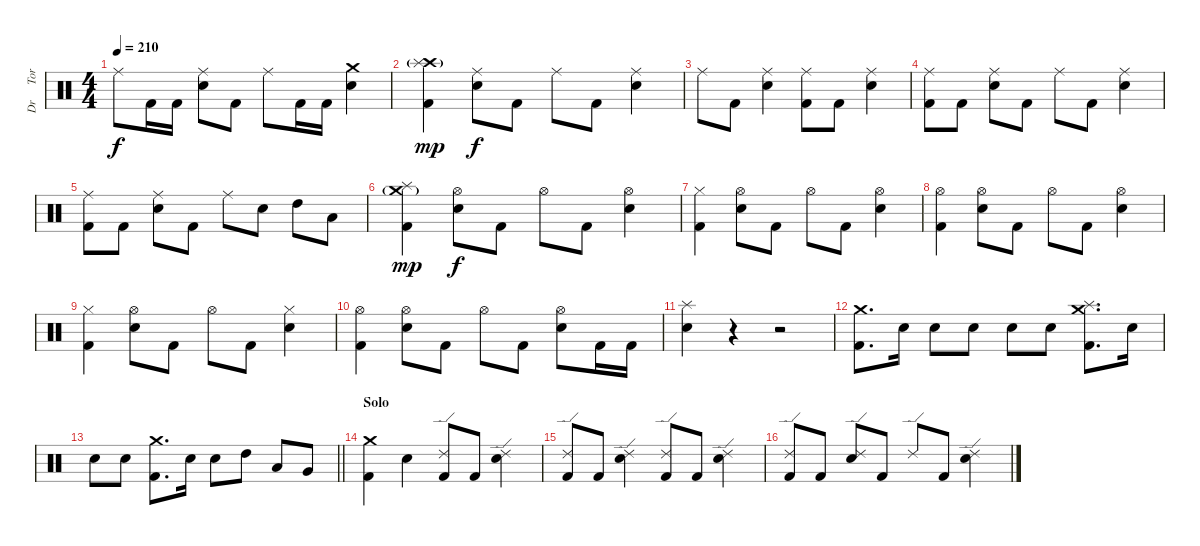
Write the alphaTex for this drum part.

\track ("Dr     Tora" "Dr     Tor") {instrument percussion}
\staff {score}
\articulation defaults
\ts (4 4)
\tempo 210
\clef neutral
\ks c "Ride (middle)".8{dy f} "Kick (hit) 2".16 "Kick (hit) 2".16
("Ride (middle)" "Electric Snare (hit)").8 "Kick (hit) 2".8 "Ride (middle)".8 "Kick (hit) 2".16 "Kick (hit) 2".16 ("Crash medium (hit)" "Electric Snare (hit)").4 |
("Crash high (hit)"{g} "Splash (hit)" "Kick (hit) 2").4{dy mp} ("Ride (middle)" "Electric Snare (hit)").8{dy f} "Kick (hit) 2".8 "Ride (middle)".8 "Kick (hit) 2".8 ("Ride (middle)" "Electric Snare (hit)").4 |
"Ride (middle)".8 "Kick (hit) 2".8 ("Ride (middle)" "Electric Snare (hit)").4 ("Ride (middle)" "Kick (hit) 2").8 "Kick (hit) 2".8 ("Ride (middle)" "Electric Snare (hit)").4 |
("Ride (middle)" "Kick (hit) 2").8 "Kick (hit) 2".8 ("Ride (middle)" "Electric Snare (hit)").8 "Kick (hit) 2".8 "Ride (middle)".8 "Kick (hit) 2".8 ("Ride (middle)" "Electric Snare (hit)").4 |
("Ride (middle)" "Kick (hit) 2").8 "Kick (hit) 2".8 ("Ride (middle)" "Electric Snare (hit)").8 "Kick (hit) 2".8 "Ride (middle)".8 "Electric Snare (hit)".8 "High Tom (hit)".8 "Low Tom (hit)".8 |
("Splash (hit)" "Crash medium (hit)"{g} "Kick (hit) 2").4{dy mp} ("Hi-Hat (open)" "Electric Snare (hit)").8{dy f} "Kick (hit) 2".8 "Hi-Hat (open)".8 "Kick (hit) 2".8 ("Hi-Hat (open)" "Electric Snare (hit)").4 |
("Hi-Hat (closed)" "Kick (hit) 2").4 ("Hi-Hat (open)" "Electric Snare (hit)").8 "Kick (hit) 2".8 "Hi-Hat (open)".8 "Kick (hit) 2".8 ("Hi-Hat (open)" "Electric Snare (hit)").4 |
("Hi-Hat (open)" "Kick (hit) 2").4 ("Hi-Hat (open)" "Electric Snare (hit)").8 "Kick (hit) 2".8 "Hi-Hat (open)".8 "Kick (hit) 2".8 ("Hi-Hat (open)" "Electric Snare (hit)").4 |
("Hi-Hat (closed)" "Kick (hit) 2").4 ("Hi-Hat (open)" "Electric Snare (hit)").8 "Kick (hit) 2".8 "Hi-Hat (open)".8 "Kick (hit) 2".8 ("Hi-Hat (closed)" "Electric Snare (hit)").4 |
("Hi-Hat (open)" "Kick (hit) 2").4 ("Hi-Hat (open)" "Electric Snare (hit)").8 "Kick (hit) 2".8 "Hi-Hat (open)".8 "Kick (hit) 2".8 ("Hi-Hat (open)" "Electric Snare (hit)").8 "Kick (hit) 2".16 "Kick (hit) 2".16 |
("Splash (hit)" "Electric Snare (hit)").4 r.4 r.2 |
("Crash medium (hit)" "Kick (hit) 2").8{d} "Electric Snare (hit)".16 "Electric Snare (hit)".8 "Electric Snare (hit)".8 "Electric Snare (hit)".8 "Electric Snare (hit)".8 ("Crash medium (hit)" "Splash (hit)" "Kick (hit) 2").8{d} "Electric Snare (hit)".16 |
\barLineRight lightlight "Electric Snare (hit)".8 "Electric Snare (hit)".8
("Crash medium (hit)" "Kick (hit) 2").8{d} "Electric Snare (hit)".16 "Electric Snare (hit)".8 "High Tom (hit)".8 "Low Tom (hit)".8 "Very Low Tom (hit)".8 |
\section ("" "Solo")
("Crash medium (hit)" "Kick (hit) 2").4 "Electric Snare (hit)".4 ("Ride (edge) 2" "Kick (hit) 2").8 "Kick (hit) 2".8 ("Ride (edge) 2" "Electric Snare (hit)").4 |
("Ride (edge) 2" "Kick (hit) 2").8 "Kick (hit) 2".8 ("Ride (edge) 2" "Electric Snare (hit)").4 ("Ride (edge) 2" "Kick (hit) 2").8 "Kick (hit) 2".8 ("Ride (edge) 2" "Electric Snare (hit)").4 |
("Ride (edge) 2" "Kick (hit) 2").8 "Kick (hit) 2".8 ("Ride (edge) 2" "Electric Snare (hit)").8 "Kick (hit) 2".8 "Ride (edge) 2".8 "Kick (hit) 2".8 ("Ride (edge) 2" "Electric Snare (hit)").4
